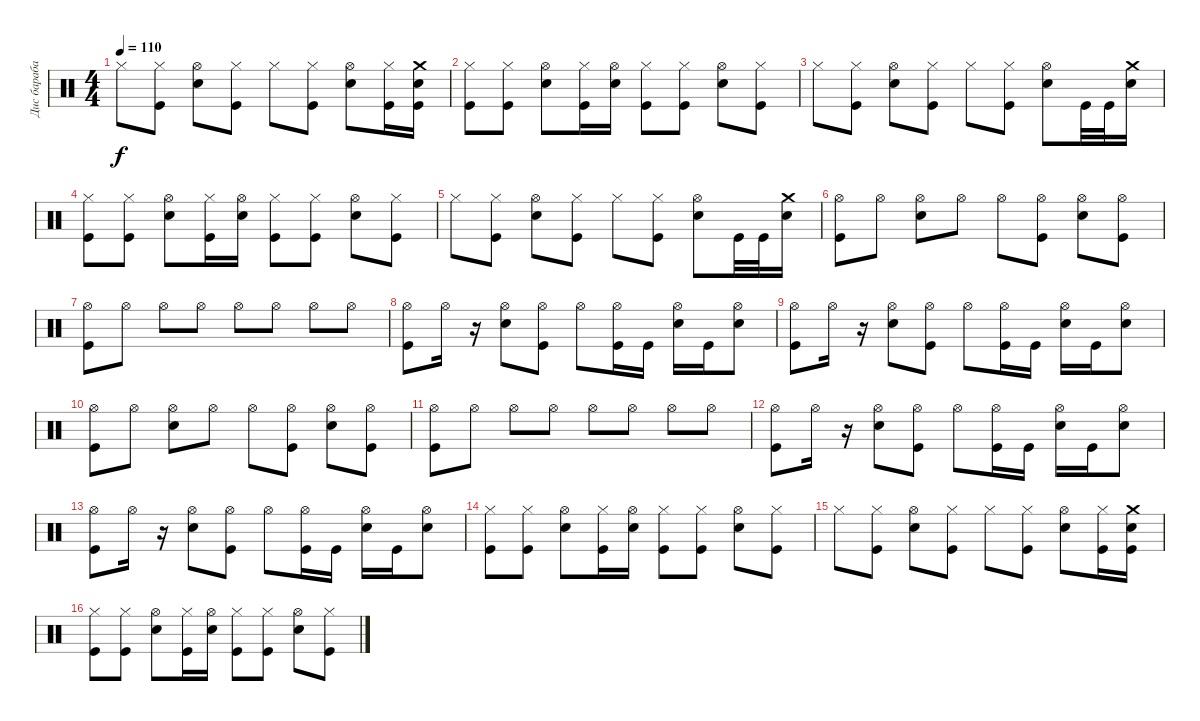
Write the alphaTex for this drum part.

\track ("Дис барабаны" "Дис бараба") {instrument percussion}
\staff {score}
\articulation defaults
\ts (4 4)
\tempo 110
\clef neutral
\ks c "Hi-Hat (closed)".8{dy f}
("Hi-Hat (closed)" "Kick (hit)").8 ("Hi-Hat (open)" "Electric Snare (hit)").8 ("Hi-Hat (closed)" "Kick (hit)").8 "Hi-Hat (closed)".8 ("Hi-Hat (closed)" "Kick (hit)").8 ("Hi-Hat (open)" "Electric Snare (hit)").8 ("Hi-Hat (closed)" "Kick (hit)").16 ("Crash medium (hit)" "Electric Snare (hit)" "Kick (hit)").16 |
("Hi-Hat (closed)" "Kick (hit)").8 ("Hi-Hat (closed)" "Kick (hit)").8 ("Hi-Hat (open)" "Electric Snare (hit)").8 ("Hi-Hat (closed)" "Kick (hit)").16 ("Hi-Hat (open)" "Electric Snare (hit)").16 ("Hi-Hat (closed)" "Kick (hit)").8 ("Hi-Hat (closed)" "Kick (hit)").8 ("Hi-Hat (open)" "Electric Snare (hit)").8 ("Hi-Hat (closed)" "Kick (hit)").8 |
"Hi-Hat (closed)".8 ("Hi-Hat (closed)" "Kick (hit)").8 ("Hi-Hat (open)" "Electric Snare (hit)").8 ("Hi-Hat (closed)" "Kick (hit)").8 "Hi-Hat (closed)".8 ("Hi-Hat (closed)" "Kick (hit)").8 ("Hi-Hat (open)" "Electric Snare (hit)").8 "Kick (hit)".32 "Kick (hit)".32 ("Crash medium (hit)" "Electric Snare (hit)").16 |
("Hi-Hat (closed)" "Kick (hit)").8 ("Hi-Hat (closed)" "Kick (hit)").8 ("Hi-Hat (open)" "Electric Snare (hit)").8 ("Hi-Hat (closed)" "Kick (hit)").16 ("Hi-Hat (open)" "Electric Snare (hit)").16 ("Hi-Hat (closed)" "Kick (hit)").8 ("Hi-Hat (closed)" "Kick (hit)").8 ("Hi-Hat (open)" "Electric Snare (hit)").8 ("Hi-Hat (closed)" "Kick (hit)").8 |
"Hi-Hat (closed)".8 ("Hi-Hat (closed)" "Kick (hit)").8 ("Hi-Hat (open)" "Electric Snare (hit)").8 ("Hi-Hat (closed)" "Kick (hit)").8 "Hi-Hat (closed)".8 ("Hi-Hat (closed)" "Kick (hit)").8 ("Hi-Hat (open)" "Electric Snare (hit)").8 "Kick (hit)".32 "Kick (hit)".32 ("Crash medium (hit)" "Electric Snare (hit)").16 |
("Hi-Hat (open)" "Kick (hit)").8 "Hi-Hat (open)".8 ("Hi-Hat (open)" "Electric Snare (hit)").8 "Hi-Hat (open)".8 "Hi-Hat (open)".8 ("Hi-Hat (open)" "Kick (hit)").8 ("Hi-Hat (open)" "Electric Snare (hit)").8 ("Hi-Hat (open)" "Kick (hit)").8 |
("Hi-Hat (open)" "Kick (hit)").8 "Hi-Hat (open)".8 "Hi-Hat (open)".8 "Hi-Hat (open)".8 "Hi-Hat (open)".8 "Hi-Hat (open)".8 "Hi-Hat (open)".8 "Hi-Hat (open)".8 |
("Hi-Hat (open)" "Kick (hit)").8 "Hi-Hat (open)".16 r.16 ("Hi-Hat (open)" "Electric Snare (hit)").8 ("Hi-Hat (open)" "Kick (hit)").8 "Hi-Hat (open)".8 ("Hi-Hat (open)" "Kick (hit)").16 "Kick (hit)".16 ("Hi-Hat (open)" "Electric Snare (hit)").16 "Kick (hit)".16 ("Hi-Hat (open)" "Electric Snare (hit)").8 |
("Hi-Hat (open)" "Kick (hit)").8 "Hi-Hat (open)".16 r.16 ("Hi-Hat (open)" "Electric Snare (hit)").8 ("Hi-Hat (open)" "Kick (hit)").8 "Hi-Hat (open)".8 ("Hi-Hat (open)" "Kick (hit)").16 "Kick (hit)".16 ("Hi-Hat (open)" "Electric Snare (hit)").16 "Kick (hit)".16 ("Hi-Hat (open)" "Electric Snare (hit)").8 |
("Hi-Hat (open)" "Kick (hit)").8 "Hi-Hat (open)".8 ("Hi-Hat (open)" "Electric Snare (hit)").8 "Hi-Hat (open)".8 "Hi-Hat (open)".8 ("Hi-Hat (open)" "Kick (hit)").8 ("Hi-Hat (open)" "Electric Snare (hit)").8 ("Hi-Hat (open)" "Kick (hit)").8 |
("Hi-Hat (open)" "Kick (hit)").8 "Hi-Hat (open)".8 "Hi-Hat (open)".8 "Hi-Hat (open)".8 "Hi-Hat (open)".8 "Hi-Hat (open)".8 "Hi-Hat (open)".8 "Hi-Hat (open)".8 |
("Hi-Hat (open)" "Kick (hit)").8 "Hi-Hat (open)".16 r.16 ("Hi-Hat (open)" "Electric Snare (hit)").8 ("Hi-Hat (open)" "Kick (hit)").8 "Hi-Hat (open)".8 ("Hi-Hat (open)" "Kick (hit)").16 "Kick (hit)".16 ("Hi-Hat (open)" "Electric Snare (hit)").16 "Kick (hit)".16 ("Hi-Hat (open)" "Electric Snare (hit)").8 |
("Hi-Hat (open)" "Kick (hit)").8 "Hi-Hat (open)".16 r.16 ("Hi-Hat (open)" "Electric Snare (hit)").8 ("Hi-Hat (open)" "Kick (hit)").8 "Hi-Hat (open)".8 ("Hi-Hat (open)" "Kick (hit)").16 "Kick (hit)".16 ("Hi-Hat (open)" "Electric Snare (hit)").16 "Kick (hit)".16 ("Hi-Hat (open)" "Electric Snare (hit)").8 |
("Hi-Hat (closed)" "Kick (hit)").8 ("Hi-Hat (closed)" "Kick (hit)").8 ("Hi-Hat (open)" "Electric Snare (hit)").8 ("Hi-Hat (closed)" "Kick (hit)").16 ("Hi-Hat (open)" "Electric Snare (hit)").16 ("Hi-Hat (closed)" "Kick (hit)").8 ("Hi-Hat (closed)" "Kick (hit)").8 ("Hi-Hat (open)" "Electric Snare (hit)").8 ("Hi-Hat (closed)" "Kick (hit)").8 |
"Hi-Hat (closed)".8 ("Hi-Hat (closed)" "Kick (hit)").8 ("Hi-Hat (open)" "Electric Snare (hit)").8 ("Hi-Hat (closed)" "Kick (hit)").8 "Hi-Hat (closed)".8 ("Hi-Hat (closed)" "Kick (hit)").8 ("Hi-Hat (open)" "Electric Snare (hit)").8 ("Hi-Hat (closed)" "Kick (hit)").16 ("Crash medium (hit)" "Electric Snare (hit)" "Kick (hit)").16 |
("Hi-Hat (closed)" "Kick (hit)").8 ("Hi-Hat (closed)" "Kick (hit)").8 ("Hi-Hat (open)" "Electric Snare (hit)").8 ("Hi-Hat (closed)" "Kick (hit)").16 ("Hi-Hat (open)" "Electric Snare (hit)").16 ("Hi-Hat (closed)" "Kick (hit)").8 ("Hi-Hat (closed)" "Kick (hit)").8 ("Hi-Hat (open)" "Electric Snare (hit)").8 ("Hi-Hat (closed)" "Kick (hit)").8
